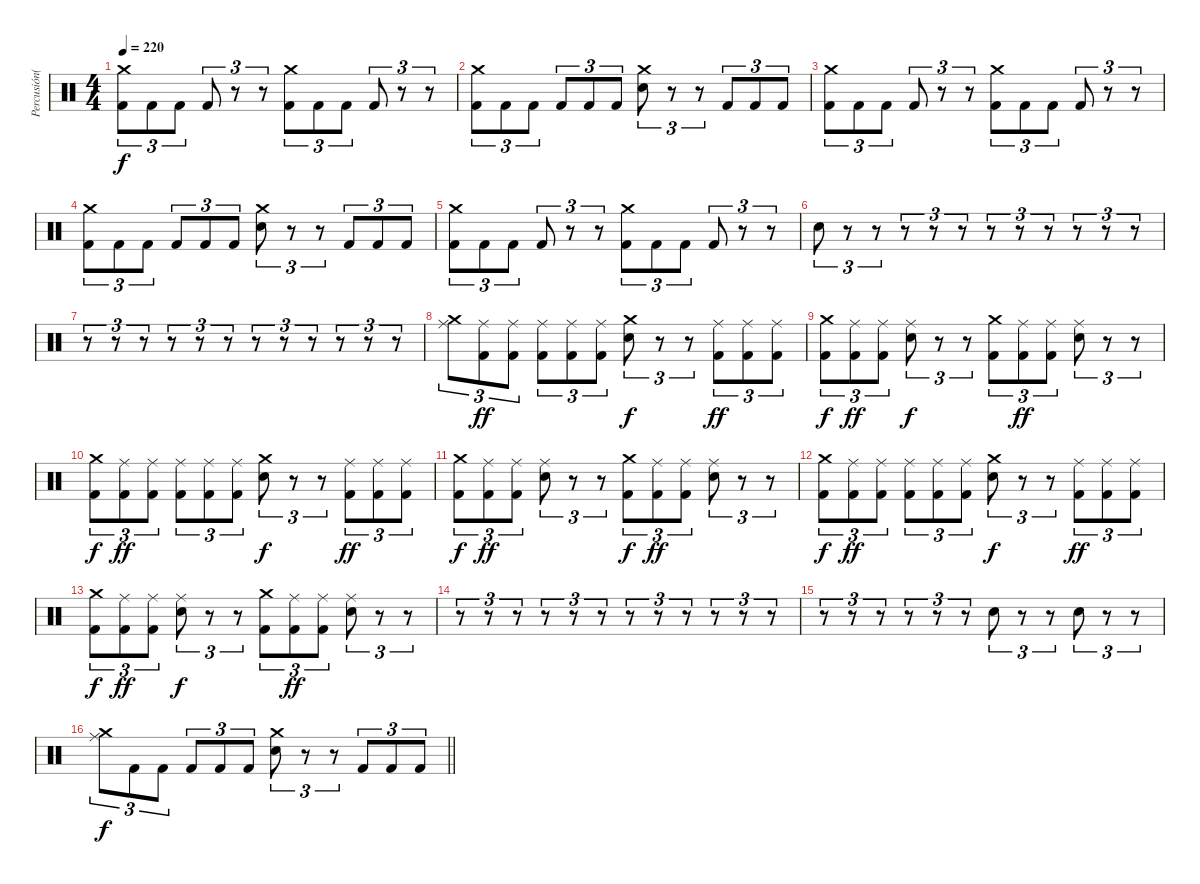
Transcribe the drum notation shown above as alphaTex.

\track ("Percusión(Brett Powell)" "Percusión(") {instrument percussion}
\staff {score}
\articulation defaults
\ts (4 4)
\tempo 220
\clef neutral
\ks c
("Crash medium (hit)" "Kick (hit) 2").8{tu (3 2) dy f} "Kick (hit) 2".8{tu (3 2)} "Kick (hit) 2".8{tu (3 2)} "Kick (hit) 2".8{tu (3 2)} r.8{tu (3 2)} r.8{tu (3 2)} ("Crash medium (hit)" "Kick (hit) 2").8{tu (3 2)} "Kick (hit) 2".8{tu (3 2)} "Kick (hit) 2".8{tu (3 2)} "Kick (hit) 2".8{tu (3 2)} r.8{tu (3 2)} r.8{tu (3 2)} |
("Crash medium (hit)" "Kick (hit) 2").8{tu (3 2)} "Kick (hit) 2".8{tu (3 2)} "Kick (hit) 2".8{tu (3 2)} "Kick (hit) 2".8{tu (3 2)} "Kick (hit) 2".8{tu (3 2)} "Kick (hit) 2".8{tu (3 2)} ("Crash medium (hit)" "Electric Snare (hit)").8{tu (3 2)} r.8{tu (3 2)} r.8{tu (3 2)} "Kick (hit) 2".8{tu (3 2)} "Kick (hit) 2".8{tu (3 2)} "Kick (hit) 2".8{tu (3 2)} |
("Crash medium (hit)" "Kick (hit) 2").8{tu (3 2)} "Kick (hit) 2".8{tu (3 2)} "Kick (hit) 2".8{tu (3 2)} "Kick (hit) 2".8{tu (3 2)} r.8{tu (3 2)} r.8{tu (3 2)} ("Crash medium (hit)" "Kick (hit) 2").8{tu (3 2)} "Kick (hit) 2".8{tu (3 2)} "Kick (hit) 2".8{tu (3 2)} "Kick (hit) 2".8{tu (3 2)} r.8{tu (3 2)} r.8{tu (3 2)} |
("Crash medium (hit)" "Kick (hit) 2").8{tu (3 2)} "Kick (hit) 2".8{tu (3 2)} "Kick (hit) 2".8{tu (3 2)} "Kick (hit) 2".8{tu (3 2)} "Kick (hit) 2".8{tu (3 2)} "Kick (hit) 2".8{tu (3 2)} ("Crash medium (hit)" "Electric Snare (hit)").8{tu (3 2)} r.8{tu (3 2)} r.8{tu (3 2)} "Kick (hit) 2".8{tu (3 2)} "Kick (hit) 2".8{tu (3 2)} "Kick (hit) 2".8{tu (3 2)} |
("Crash medium (hit)" "Kick (hit) 2").8{tu (3 2)} "Kick (hit) 2".8{tu (3 2)} "Kick (hit) 2".8{tu (3 2)} "Kick (hit) 2".8{tu (3 2)} r.8{tu (3 2)} r.8{tu (3 2)} ("Crash medium (hit)" "Kick (hit) 2").8{tu (3 2)} "Kick (hit) 2".8{tu (3 2)} "Kick (hit) 2".8{tu (3 2)} "Kick (hit) 2".8{tu (3 2)} r.8{tu (3 2)} r.8{tu (3 2)} |
"Electric Snare (hit)".8{tu (3 2)} r.8{tu (3 2)} r.8{tu (3 2)} r.8{tu (3 2)} r.8{tu (3 2)} r.8{tu (3 2)} r.8{tu (3 2)} r.8{tu (3 2)} r.8{tu (3 2)} r.8{tu (3 2)} r.8{tu (3 2)} r.8{tu (3 2)} |
r.8{tu (3 2)} r.8{tu (3 2)} r.8{tu (3 2)} r.8{tu (3 2)} r.8{tu (3 2)} r.8{tu (3 2)} r.8{tu (3 2)} r.8{tu (3 2)} r.8{tu (3 2)} r.8{tu (3 2)} r.8{tu (3 2)} r.8{tu (3 2)} |
("Crash medium (hit)" "Ride (middle)").8{tu (3 2)} ("Ride (middle)" "Kick (hit) 2").8{tu (3 2) dy ff} ("Ride (middle)" "Kick (hit) 2").8{tu (3 2)} ("Ride (middle)" "Kick (hit) 2").8{tu (3 2)} ("Ride (middle)" "Kick (hit) 2").8{tu (3 2)} ("Ride (middle)" "Kick (hit) 2").8{tu (3 2)} ("Crash medium (hit)" "Electric Snare (hit)").8{tu (3 2) dy f} r.8{tu (3 2)} r.8{tu (3 2)} ("Ride (middle)" "Kick (hit) 2").8{tu (3 2) dy ff} ("Ride (middle)" "Kick (hit) 2").8{tu (3 2)} ("Ride (middle)" "Kick (hit) 2").8{tu (3 2)} |
("Crash medium (hit)" "Kick (hit) 2").8{tu (3 2) dy f} ("Ride (middle)" "Kick (hit) 2").8{tu (3 2) dy ff} ("Ride (middle)" "Kick (hit) 2").8{tu (3 2)} ("Ride (middle)" "Electric Snare (hit)").8{tu (3 2) dy f} r.8{tu (3 2)} r.8{tu (3 2)} ("Crash medium (hit)" "Kick (hit) 2").8{tu (3 2)} ("Ride (middle)" "Kick (hit) 2").8{tu (3 2) dy ff} ("Ride (middle)" "Kick (hit) 2").8{tu (3 2)} ("Ride (middle)" "Electric Snare (hit)").8{tu (3 2)} r.8{tu (3 2)} r.8{tu (3 2)} |
("Crash medium (hit)" "Kick (hit) 2").8{tu (3 2) dy f} ("Ride (middle)" "Kick (hit) 2").8{tu (3 2) dy ff} ("Ride (middle)" "Kick (hit) 2").8{tu (3 2)} ("Ride (middle)" "Kick (hit) 2").8{tu (3 2)} ("Ride (middle)" "Kick (hit) 2").8{tu (3 2)} ("Ride (middle)" "Kick (hit) 2").8{tu (3 2)} ("Crash medium (hit)" "Electric Snare (hit)").8{tu (3 2) dy f} r.8{tu (3 2)} r.8{tu (3 2)} ("Ride (middle)" "Kick (hit) 2").8{tu (3 2) dy ff} ("Ride (middle)" "Kick (hit) 2").8{tu (3 2)} ("Ride (middle)" "Kick (hit) 2").8{tu (3 2)} |
("Crash medium (hit)" "Kick (hit) 2").8{tu (3 2) dy f} ("Ride (middle)" "Kick (hit) 2").8{tu (3 2) dy ff} ("Ride (middle)" "Kick (hit) 2").8{tu (3 2)} ("Ride (middle)" "Electric Snare (hit)").8{tu (3 2)} r.8{tu (3 2)} r.8{tu (3 2)} ("Crash medium (hit)" "Kick (hit) 2").8{tu (3 2) dy f} ("Ride (middle)" "Kick (hit) 2").8{tu (3 2) dy ff} ("Ride (middle)" "Kick (hit) 2").8{tu (3 2)} ("Ride (middle)" "Electric Snare (hit)").8{tu (3 2)} r.8{tu (3 2)} r.8{tu (3 2)} |
("Crash medium (hit)" "Kick (hit) 2").8{tu (3 2) dy f} ("Ride (middle)" "Kick (hit) 2").8{tu (3 2) dy ff} ("Ride (middle)" "Kick (hit) 2").8{tu (3 2)} ("Ride (middle)" "Kick (hit) 2").8{tu (3 2)} ("Ride (middle)" "Kick (hit) 2").8{tu (3 2)} ("Ride (middle)" "Kick (hit) 2").8{tu (3 2)} ("Crash medium (hit)" "Electric Snare (hit)").8{tu (3 2) dy f} r.8{tu (3 2)} r.8{tu (3 2)} ("Ride (middle)" "Kick (hit) 2").8{tu (3 2) dy ff} ("Ride (middle)" "Kick (hit) 2").8{tu (3 2)} ("Ride (middle)" "Kick (hit) 2").8{tu (3 2)} |
("Crash medium (hit)" "Kick (hit) 2").8{tu (3 2) dy f} ("Ride (middle)" "Kick (hit) 2").8{tu (3 2) dy ff} ("Ride (middle)" "Kick (hit) 2").8{tu (3 2)} ("Ride (middle)" "Electric Snare (hit)").8{tu (3 2) dy f} r.8{tu (3 2)} r.8{tu (3 2)} ("Crash medium (hit)" "Kick (hit) 2").8{tu (3 2)} ("Ride (middle)" "Kick (hit) 2").8{tu (3 2) dy ff} ("Ride (middle)" "Kick (hit) 2").8{tu (3 2)} ("Ride (middle)" "Electric Snare (hit)").8{tu (3 2)} r.8{tu (3 2)} r.8{tu (3 2)} |
r.8{tu (3 2)} r.8{tu (3 2)} r.8{tu (3 2)} r.8{tu (3 2)} r.8{tu (3 2)} r.8{tu (3 2)} r.8{tu (3 2)} r.8{tu (3 2)} r.8{tu (3 2)} r.8{tu (3 2)} r.8{tu (3 2)} r.8{tu (3 2)} |
r.8{tu (3 2)} r.8{tu (3 2)} r.8{tu (3 2)} r.8{tu (3 2)} r.8{tu (3 2)} r.8{tu (3 2)} "Electric Snare (hit)".8{tu (3 2)} r.8{tu (3 2)} r.8{tu (3 2)} "Electric Snare (hit)".8{tu (3 2)} r.8{tu (3 2)} r.8{tu (3 2)} |
\barLineRight lightlight
("Crash medium (hit)" "Ride (middle)").8{tu (3 2) dy f} "Kick (hit) 2".8{tu (3 2)} "Kick (hit) 2".8{tu (3 2)} "Kick (hit) 2".8{tu (3 2)} "Kick (hit) 2".8{tu (3 2)} "Kick (hit) 2".8{tu (3 2)} ("Crash medium (hit)" "Electric Snare (hit)").8{tu (3 2)} r.8{tu (3 2)} r.8{tu (3 2)} "Kick (hit) 2".8{tu (3 2)} "Kick (hit) 2".8{tu (3 2)} "Kick (hit) 2".8{tu (3 2)}
